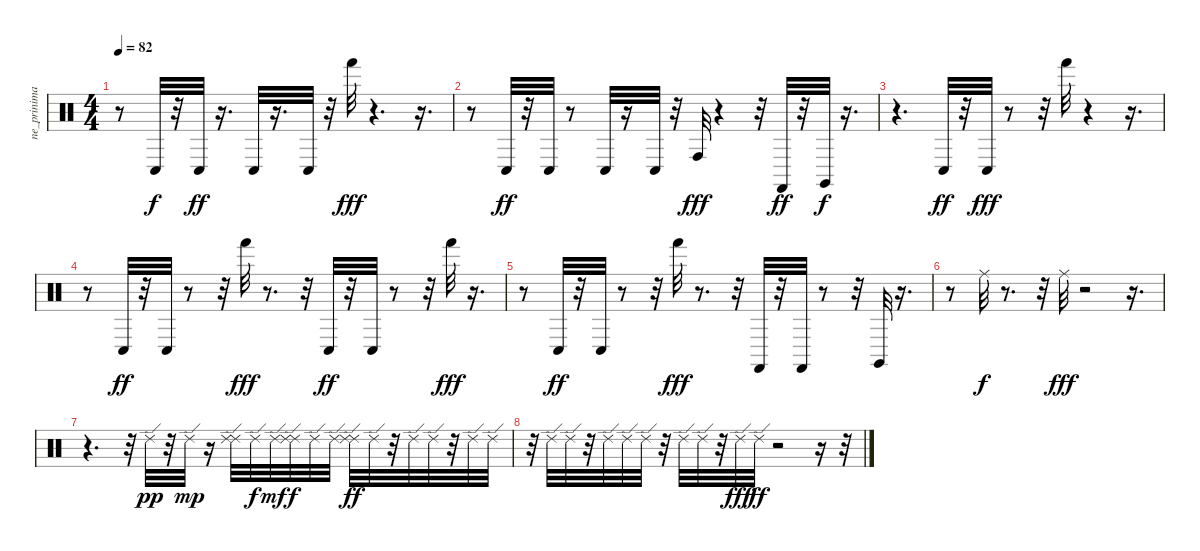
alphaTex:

\track ("ne_prinimai" "ne_prinima") {instrument percussion}
\staff {score}
\articulation defaults
\ts (4 4)
\tempo 82
\clef neutral
\ks c
r.8{dy fff} "Conga low (hit)".32{dy f} r.32 "Conga low (hit)".32{dy ff} r.16{d} "Conga low (hit)".32 r.16{d} "Conga low (hit)".32 r.32 "Hand (hit)".32{dy fff} r.4{d} r.16{d} |
r.8 "Conga low (hit)".32{dy ff} r.32 "Conga low (hit)".32 r.8 "Conga low (hit)".32 r.16 "Conga low (hit)".32 r.32 "Conga high (hit)".32{dy fff} r.4 r.32 "Castanets (hit)".32{dy ff} r.32 "Claves (hit)".32{dy f} r.16{d} |
r.4{d} "Conga low (hit)".32{dy ff} r.32 "Conga low (hit)".32{dy fff} r.8 r.32 "Hand (hit)".32 r.4 r.16{d} |
r.8 "Conga low (hit)".32{dy ff} r.32 "Conga low (hit)".32 r.8 r.32 "Hand (hit)".32{dy fff} r.8{d} r.32 "Conga low (hit)".32{dy ff} r.32 "Conga low (hit)".32 r.8 r.32 "Hand (hit)".32{dy fff} r.16{d} |
r.8 "Conga low (hit)".32{dy ff} r.32 "Conga low (hit)".32 r.8 r.32 "Hand (hit)".32{dy fff} r.8{d} r.32 "Castanets (hit)".32 r.32 "Castanets (hit)".32 r.8 r.32 "Claves (hit)".32 r.16{d} |
r.8 "Ride (middle)".32{dy f} r.8{d} r.32 "Ride (middle)".32{dy fff} r.2 r.16{d} |
r.4{d} r.32 "Ride (edge) 2".32{dy pp} r.32 "Ride (edge) 2".32{dy mp} r.16 ("Ride (edge) 2" "Ride (edge) 2").32 "Ride (edge) 2".32{dy f} "Ride (edge) 2".32{dy mf} ("Ride (edge) 2" "Ride (edge) 2").32{dy f} "Ride (edge) 2".32 "Ride (edge) 2".32 ("Ride (edge) 2" "Ride (edge) 2").32{dy ff} "Ride (edge) 2".32 r.32 "Ride (edge) 2".32 "Ride (edge) 2".32 r.32 "Ride (edge) 2".32 "Ride (edge) 2".32 |
r.32 "Ride (edge) 2".32 "Ride (edge) 2".32 r.32 "Ride (edge) 2".32 "Ride (edge) 2".32 "Ride (edge) 2".32 r.32 "Ride (edge) 2".32 "Ride (edge) 2".32 r.32 "Ride (edge) 2".32{dy fff} "Ride (edge) 2".32{dy ff} r.2 r.16 r.32
